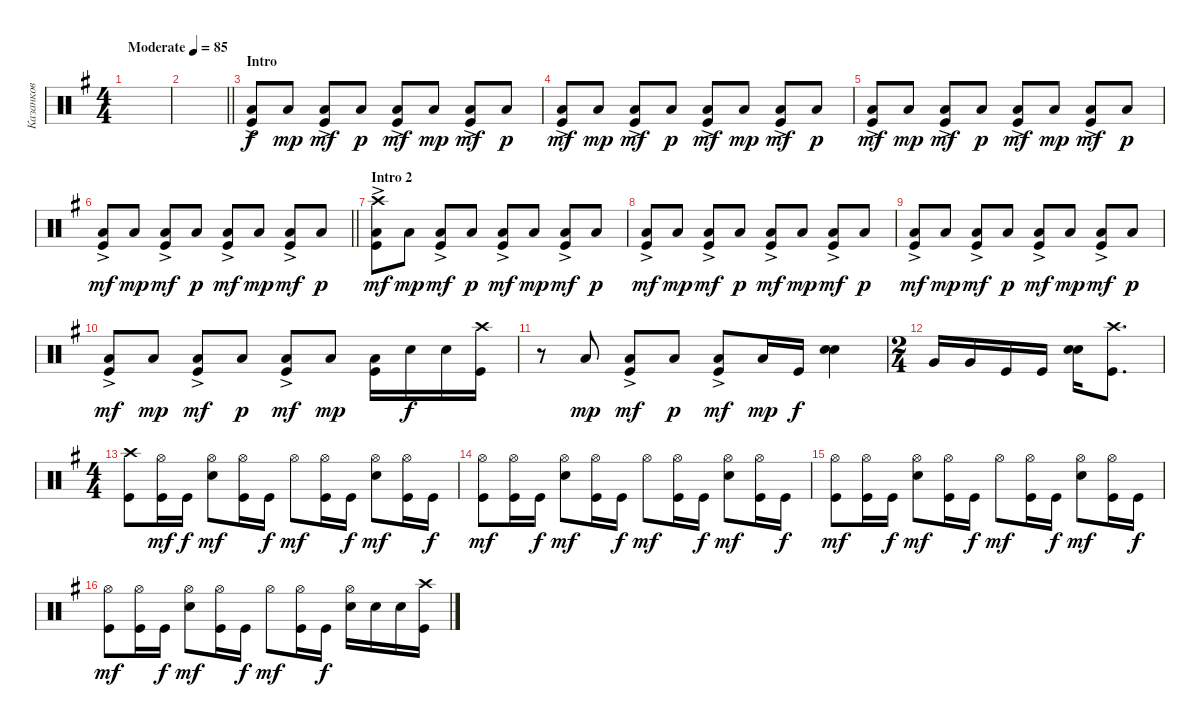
\track ("Казанков" "Казанков") {instrument percussion}
\staff {score}
\articulation defaults
\ts (4 4)
\tempo (85 "Moderate")
\clef neutral
\ks eminor
|
\barLineRight lightlight
|
\section ("" "Intro")
("Kick (hit)" "Low Floor Tom (hit)"{ac}).8 "Low Floor Tom (hit)".8{dy mp} ("Kick (hit)" "Low Floor Tom (hit)"{ac}).8{dy mf} "Low Floor Tom (hit)".8{dy p} ("Kick (hit)" "Low Floor Tom (hit)"{ac}).8{dy mf} "Low Floor Tom (hit)".8{dy mp} ("Kick (hit)" "Low Floor Tom (hit)"{ac}).8{dy mf} "Low Floor Tom (hit)".8{dy p} |
("Kick (hit)" "Low Floor Tom (hit)"{ac}).8{dy mf} "Low Floor Tom (hit)".8{dy mp} ("Kick (hit)" "Low Floor Tom (hit)"{ac}).8{dy mf} "Low Floor Tom (hit)".8{dy p} ("Kick (hit)" "Low Floor Tom (hit)"{ac}).8{dy mf} "Low Floor Tom (hit)".8{dy mp} ("Kick (hit)" "Low Floor Tom (hit)"{ac}).8{dy mf} "Low Floor Tom (hit)".8{dy p} |
("Kick (hit)" "Low Floor Tom (hit)"{ac}).8{dy mf} "Low Floor Tom (hit)".8{dy mp} ("Kick (hit)" "Low Floor Tom (hit)"{ac}).8{dy mf} "Low Floor Tom (hit)".8{dy p} ("Kick (hit)" "Low Floor Tom (hit)"{ac}).8{dy mf} "Low Floor Tom (hit)".8{dy mp} ("Kick (hit)" "Low Floor Tom (hit)"{ac}).8{dy mf} "Low Floor Tom (hit)".8{dy p} |
\barLineRight lightlight
("Kick (hit)" "Low Floor Tom (hit)"{ac}).8{dy mf} "Low Floor Tom (hit)".8{dy mp} ("Kick (hit)" "Low Floor Tom (hit)"{ac}).8{dy mf} "Low Floor Tom (hit)".8{dy p} ("Kick (hit)" "Low Floor Tom (hit)"{ac}).8{dy mf} "Low Floor Tom (hit)".8{dy mp} ("Kick (hit)" "Low Floor Tom (hit)"{ac}).8{dy mf} "Low Floor Tom (hit)".8{dy p} |
\section ("" "Intro 2")
("Kick (hit)" "Crash high (hit)" "Low Floor Tom (hit)"{ac}).8{dy mf} "Low Floor Tom (hit)".8{dy mp} ("Kick (hit)" "Low Floor Tom (hit)"{ac}).8{dy mf} "Low Floor Tom (hit)".8{dy p} ("Kick (hit)" "Low Floor Tom (hit)"{ac}).8{dy mf} "Low Floor Tom (hit)".8{dy mp} ("Kick (hit)" "Low Floor Tom (hit)"{ac}).8{dy mf} "Low Floor Tom (hit)".8{dy p} |
("Kick (hit)" "Low Floor Tom (hit)"{ac}).8{dy mf} "Low Floor Tom (hit)".8{dy mp} ("Kick (hit)" "Low Floor Tom (hit)"{ac}).8{dy mf} "Low Floor Tom (hit)".8{dy p} ("Kick (hit)" "Low Floor Tom (hit)"{ac}).8{dy mf} "Low Floor Tom (hit)".8{dy mp} ("Kick (hit)" "Low Floor Tom (hit)"{ac}).8{dy mf} "Low Floor Tom (hit)".8{dy p} |
("Kick (hit)" "Low Floor Tom (hit)"{ac}).8{dy mf} "Low Floor Tom (hit)".8{dy mp} ("Kick (hit)" "Low Floor Tom (hit)"{ac}).8{dy mf} "Low Floor Tom (hit)".8{dy p} ("Kick (hit)" "Low Floor Tom (hit)"{ac}).8{dy mf} "Low Floor Tom (hit)".8{dy mp} ("Kick (hit)" "Low Floor Tom (hit)"{ac}).8{dy mf} "Low Floor Tom (hit)".8{dy p} |
("Kick (hit)" "Low Floor Tom (hit)"{ac}).8{dy mf} "Low Floor Tom (hit)".8{dy mp} ("Kick (hit)" "Low Floor Tom (hit)"{ac}).8{dy mf} "Low Floor Tom (hit)".8{dy p} ("Kick (hit)" "Low Floor Tom (hit)"{ac}).8{dy mf} "Low Floor Tom (hit)".8{dy mp} ("Kick (hit)" "Low Floor Tom (hit)").16 "Snare (hit) 2".16{dy f} "Snare (hit) 2".16 ("Kick (hit)" "Crash high (hit)").16 |
r.8 "Low Floor Tom (hit)".8{dy mp} ("Kick (hit)" "Low Floor Tom (hit)"{ac}).8{dy mf} "Low Floor Tom (hit)".8{dy p} ("Kick (hit)" "Low Floor Tom (hit)"{ac}).8{dy mf} "Low Floor Tom (hit)".16{dy mp} "Kick (hit)".16{dy f} ("Snare (hit) 2" "Snare (hit) 2").4{bd 120} |
\ts (2 4)
"Very Low Tom (hit)".16 "Very Low Tom (hit)".16 "Kick (hit)".16 "Kick (hit)".16 ("Snare (hit) 2" "Snare (hit) 2").16{bd 240} ("Kick (hit)" "Crash high (hit)").8{d} |
\ts (4 4)
("Kick (hit)" "Crash high (hit)").8 ("Kick (hit)" "Hi-Hat (open)").16{dy mf} "Kick (hit)".16{dy f} ("Snare (hit) 2" "Hi-Hat (open)").8{dy mf} ("Kick (hit)" "Hi-Hat (open)").16 "Kick (hit)".16{dy f} "Hi-Hat (open)".8{dy mf} ("Kick (hit)" "Hi-Hat (open)").16 "Kick (hit)".16{dy f} ("Snare (hit) 2" "Hi-Hat (open)").8{dy mf} ("Kick (hit)" "Hi-Hat (open)").16 "Kick (hit)".16{dy f} |
("Kick (hit)" "Hi-Hat (open)").8{dy mf} ("Kick (hit)" "Hi-Hat (open)").16 "Kick (hit)".16{dy f} ("Snare (hit) 2" "Hi-Hat (open)").8{dy mf} ("Kick (hit)" "Hi-Hat (open)").16 "Kick (hit)".16{dy f} "Hi-Hat (open)".8{dy mf} ("Kick (hit)" "Hi-Hat (open)").16 "Kick (hit)".16{dy f} ("Snare (hit) 2" "Hi-Hat (open)").8{dy mf} ("Kick (hit)" "Hi-Hat (open)").16 "Kick (hit)".16{dy f} |
("Kick (hit)" "Hi-Hat (open)").8{dy mf} ("Kick (hit)" "Hi-Hat (open)").16 "Kick (hit)".16{dy f} ("Snare (hit) 2" "Hi-Hat (open)").8{dy mf} ("Kick (hit)" "Hi-Hat (open)").16 "Kick (hit)".16{dy f} "Hi-Hat (open)".8{dy mf} ("Kick (hit)" "Hi-Hat (open)").16 "Kick (hit)".16{dy f} ("Snare (hit) 2" "Hi-Hat (open)").8{dy mf} ("Kick (hit)" "Hi-Hat (open)").16 "Kick (hit)".16{dy f} |
("Kick (hit)" "Hi-Hat (open)").8{dy mf} ("Kick (hit)" "Hi-Hat (open)").16 "Kick (hit)".16{dy f} ("Snare (hit) 2" "Hi-Hat (open)").8{dy mf} ("Kick (hit)" "Hi-Hat (open)").16 "Kick (hit)".16{dy f} "Hi-Hat (open)".8{dy mf} ("Kick (hit)" "Hi-Hat (open)").16 "Kick (hit)".16{dy f} ("Snare (hit) 2" "Hi-Hat (open)").16 "Snare (hit) 2".16 "Snare (hit) 2".16 ("Kick (hit)" "Crash high (hit)").16
